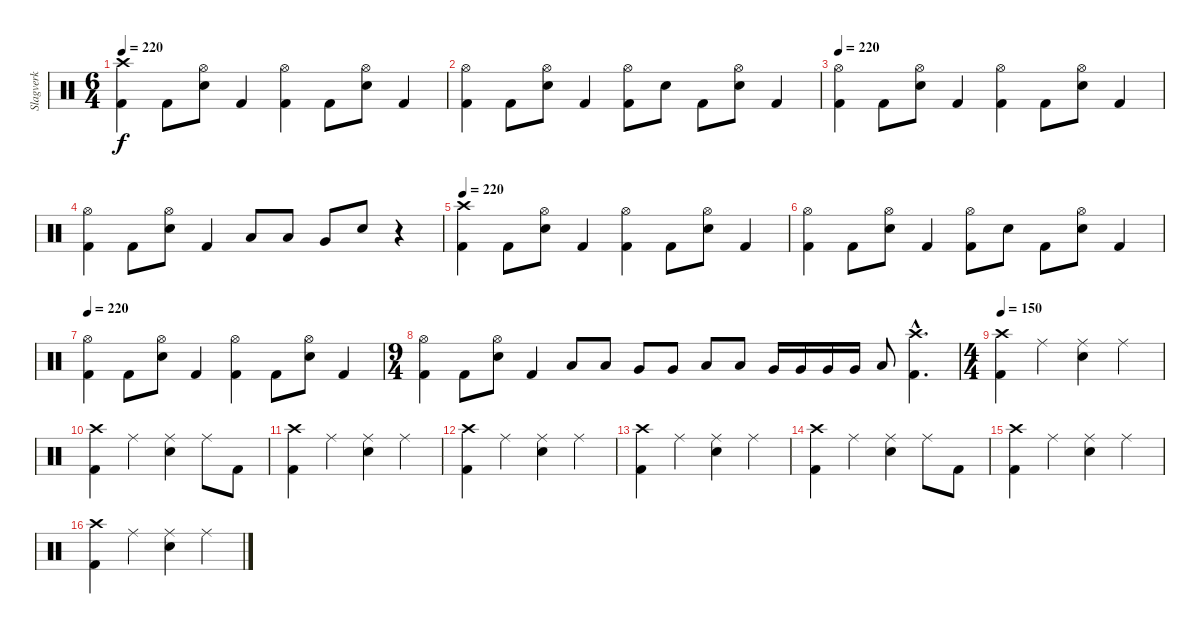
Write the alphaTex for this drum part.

\track ("Slagverk" "Slagverk") {instrument percussion}
\staff {score}
\articulation defaults
\ts (6 4)
\tempo 220
\clef neutral
\ks c
("Crash high (hit)" "Kick (hit) 2").4{dy f} "Kick (hit) 2".8 ("Hi-Hat (open)" "Electric Snare (hit)").8 "Kick (hit) 2".4 ("Hi-Hat (open)" "Kick (hit) 2").4 "Kick (hit) 2".8 ("Hi-Hat (open)" "Electric Snare (hit)").8 "Kick (hit) 2".4 |
("Hi-Hat (open)" "Kick (hit) 2").4 "Kick (hit) 2".8 ("Hi-Hat (open)" "Electric Snare (hit)").8 "Kick (hit) 2".4 ("Hi-Hat (open)" "Kick (hit) 2").8 "Electric Snare (hit)".8 "Kick (hit) 2".8 ("Hi-Hat (open)" "Electric Snare (hit)").8 "Kick (hit) 2".4 |
\tempo 220
("Hi-Hat (open)" "Kick (hit) 2").4 "Kick (hit) 2".8 ("Hi-Hat (open)" "Electric Snare (hit)").8 "Kick (hit) 2".4 ("Hi-Hat (open)" "Kick (hit) 2").4 "Kick (hit) 2".8 ("Hi-Hat (open)" "Electric Snare (hit)").8 "Kick (hit) 2".4 |
("Hi-Hat (open)" "Kick (hit) 2").4 "Kick (hit) 2".8 ("Hi-Hat (open)" "Electric Snare (hit)").8 "Kick (hit) 2".4 "Low Tom (hit)".8 "Low Tom (hit)".8 "Very Low Tom (hit)".8 "Electric Snare (hit)".8 r.4 |
\tempo 220
("Crash high (hit)" "Kick (hit) 2").4 "Kick (hit) 2".8 ("Hi-Hat (open)" "Electric Snare (hit)").8 "Kick (hit) 2".4 ("Hi-Hat (open)" "Kick (hit) 2").4 "Kick (hit) 2".8 ("Hi-Hat (open)" "Electric Snare (hit)").8 "Kick (hit) 2".4 |
("Hi-Hat (open)" "Kick (hit) 2").4 "Kick (hit) 2".8 ("Hi-Hat (open)" "Electric Snare (hit)").8 "Kick (hit) 2".4 ("Hi-Hat (open)" "Kick (hit) 2").8 "Electric Snare (hit)".8 "Kick (hit) 2".8 ("Hi-Hat (open)" "Electric Snare (hit)").8 "Kick (hit) 2".4 |
\tempo 220
("Hi-Hat (open)" "Kick (hit) 2").4 "Kick (hit) 2".8 ("Hi-Hat (open)" "Electric Snare (hit)").8 "Kick (hit) 2".4 ("Hi-Hat (open)" "Kick (hit) 2").4 "Kick (hit) 2".8 ("Hi-Hat (open)" "Electric Snare (hit)").8 "Kick (hit) 2".4 |
\ts (9 4)
("Hi-Hat (open)" "Kick (hit) 2").4 "Kick (hit) 2".8 ("Hi-Hat (open)" "Electric Snare (hit)").8 "Kick (hit) 2".4 "Low Tom (hit)".8 "Low Tom (hit)".8 "Very Low Tom (hit)".8 "Very Low Tom (hit)".8 "Low Floor Tom (hit)".8 "Low Floor Tom (hit)".8 "Very Low Tom (hit)".16 "Very Low Tom (hit)".16 "Very Low Tom (hit)".16 "Very Low Tom (hit)".16 "Low Floor Tom (hit)".8 ("Crash high (hit)"{hac} "Kick (hit) 2"{hac}).4{d} |
\ts (4 4)
\tempo 150
("Crash high (hit)" "Kick (hit) 2").4 "Ride (middle)".4 ("Ride (middle)" "Electric Snare (hit)").4 "Ride (middle)".4 |
("Crash high (hit)" "Kick (hit) 2").4 "Ride (middle)".4 ("Ride (middle)" "Electric Snare (hit)").4 "Ride (middle)".8 "Kick (hit) 2".8 |
("Crash high (hit)" "Kick (hit) 2").4 "Ride (middle)".4 ("Ride (middle)" "Electric Snare (hit)").4 "Ride (middle)".4 |
("Crash high (hit)" "Kick (hit) 2").4 "Ride (middle)".4 ("Ride (middle)" "Electric Snare (hit)").4 "Ride (middle)".4 |
("Crash high (hit)" "Kick (hit) 2").4 "Ride (middle)".4 ("Ride (middle)" "Electric Snare (hit)").4 "Ride (middle)".4 |
("Crash high (hit)" "Kick (hit) 2").4 "Ride (middle)".4 ("Ride (middle)" "Electric Snare (hit)").4 "Ride (middle)".8 "Kick (hit) 2".8 |
("Crash high (hit)" "Kick (hit) 2").4 "Ride (middle)".4 ("Ride (middle)" "Electric Snare (hit)").4 "Ride (middle)".4 |
("Crash high (hit)" "Kick (hit) 2").4 "Ride (middle)".4 ("Ride (middle)" "Electric Snare (hit)").4 "Ride (middle)".4
